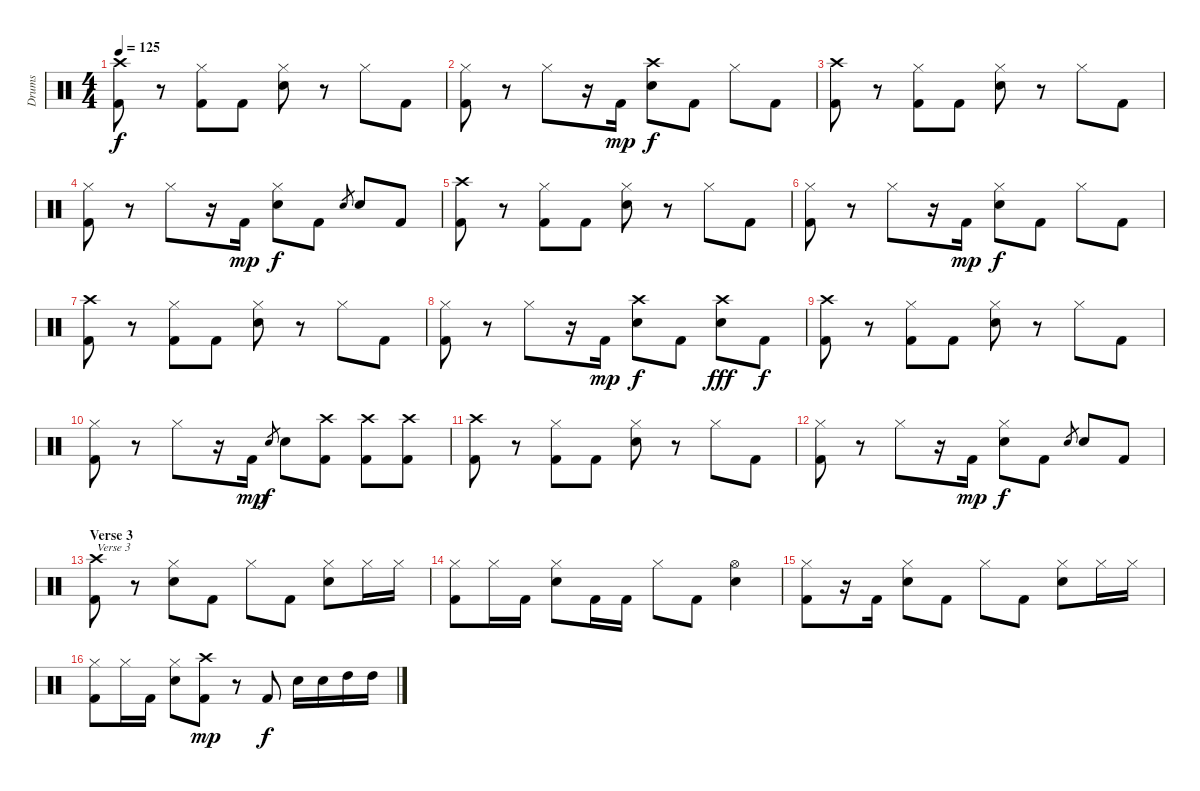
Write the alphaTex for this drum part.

\track ("Drums" "Drums") {instrument percussion}
\staff {score}
\articulation defaults
\ts (4 4)
\tempo 125
\clef neutral
\ks c
("Crash high (hit)" "Kick (hit) 2").8{dy f} r.8 ("Hi-Hat (closed)" "Kick (hit) 2").8 "Kick (hit) 2".8 ("Hi-Hat (closed)" "Electric Snare (hit)").8 r.8 "Hi-Hat (closed)".8 "Kick (hit) 2".8 |
("Hi-Hat (closed)" "Kick (hit) 2").8 r.8 "Hi-Hat (closed)".8 r.16 "Kick (hit) 2".16{dy mp} ("Crash high (hit)" "Electric Snare (hit)").8{dy f} "Kick (hit) 2".8 "Hi-Hat (closed)".8 "Kick (hit) 2".8 |
("Crash high (hit)" "Kick (hit) 2").8 r.8 ("Hi-Hat (closed)" "Kick (hit) 2").8 "Kick (hit) 2".8 ("Hi-Hat (closed)" "Electric Snare (hit)").8 r.8 "Hi-Hat (closed)".8 "Kick (hit) 2".8 |
("Hi-Hat (closed)" "Kick (hit) 2").8 r.8 "Hi-Hat (closed)".8 r.16 "Kick (hit) 2".16{dy mp} ("Hi-Hat (closed)" "Electric Snare (hit)").8{dy f} "Kick (hit) 2".8 "Electric Snare (hit)".8{gr} "Electric Snare (hit)".8 "Kick (hit) 2".8 |
("Crash high (hit)" "Kick (hit) 2").8 r.8 ("Hi-Hat (closed)" "Kick (hit) 2").8 "Kick (hit) 2".8 ("Hi-Hat (closed)" "Electric Snare (hit)").8 r.8 "Hi-Hat (closed)".8 "Kick (hit) 2".8 |
("Hi-Hat (closed)" "Kick (hit) 2").8 r.8 "Hi-Hat (closed)".8 r.16 "Kick (hit) 2".16{dy mp} ("Hi-Hat (closed)" "Electric Snare (hit)").8{dy f} "Kick (hit) 2".8 "Hi-Hat (closed)".8 "Kick (hit) 2".8 |
("Crash high (hit)" "Kick (hit) 2").8 r.8 ("Hi-Hat (closed)" "Kick (hit) 2").8 "Kick (hit) 2".8 ("Hi-Hat (closed)" "Electric Snare (hit)").8 r.8 "Hi-Hat (closed)".8 "Kick (hit) 2".8 |
("Hi-Hat (closed)" "Kick (hit) 2").8 r.8 "Hi-Hat (closed)".8 r.16 "Kick (hit) 2".16{dy mp} ("Crash high (hit)" "Electric Snare (hit)").8{dy f} "Kick (hit) 2".8 ("Crash high (hit)" "Electric Snare (hit)").8{dy fff} "Kick (hit) 2".8{dy f} |
("Crash high (hit)" "Kick (hit) 2").8 r.8 ("Hi-Hat (closed)" "Kick (hit) 2").8 "Kick (hit) 2".8 ("Hi-Hat (closed)" "Electric Snare (hit)").8 r.8 "Hi-Hat (closed)".8 "Kick (hit) 2".8 |
("Hi-Hat (closed)" "Kick (hit) 2").8 r.8 "Hi-Hat (closed)".8 r.16 "Kick (hit) 2".16{dy mp} "Electric Snare (hit)".8{gr dy f} "Electric Snare (hit)".8 ("Crash high (hit)" "Kick (hit) 2").8 ("Crash high (hit)" "Kick (hit) 2").8 ("Crash high (hit)" "Kick (hit) 2").8 |
("Crash high (hit)" "Kick (hit) 2").8 r.8 ("Hi-Hat (closed)" "Kick (hit) 2").8 "Kick (hit) 2".8 ("Hi-Hat (closed)" "Electric Snare (hit)").8 r.8 "Hi-Hat (closed)".8 "Kick (hit) 2".8 |
("Hi-Hat (closed)" "Kick (hit) 2").8 r.8 "Hi-Hat (closed)".8 r.16 "Kick (hit) 2".16{dy mp} ("Hi-Hat (closed)" "Electric Snare (hit)").8{dy f} "Kick (hit) 2".8 "Electric Snare (hit)".8{gr} "Electric Snare (hit)".8 "Kick (hit) 2".8 |
\section ("" "Verse 3")
("Crash high (hit)" "Kick (hit) 2").8{txt "Verse 3"} r.8 ("Hi-Hat (closed)" "Electric Snare (hit)").8 "Kick (hit) 2".8 "Hi-Hat (closed)".8 "Kick (hit) 2".8 ("Hi-Hat (closed)" "Electric Snare (hit)").8 "Hi-Hat (closed)".16 "Hi-Hat (closed)".16 |
("Hi-Hat (closed)" "Kick (hit) 2").8 "Hi-Hat (closed)".16 "Kick (hit) 2".16 ("Hi-Hat (closed)" "Electric Snare (hit)").8 "Kick (hit) 2".16 "Kick (hit) 2".16 "Hi-Hat (closed)".8 "Kick (hit) 2".8 ("Hi-Hat (open)" "Electric Snare (hit)").4 |
("Hi-Hat (closed)" "Kick (hit) 2").8 r.16 "Kick (hit) 2".16 ("Hi-Hat (closed)" "Electric Snare (hit)").8 "Kick (hit) 2".8 "Hi-Hat (closed)".8 "Kick (hit) 2".8 ("Hi-Hat (closed)" "Electric Snare (hit)").8 "Hi-Hat (closed)".16 "Hi-Hat (closed)".16 |
("Hi-Hat (closed)" "Kick (hit) 2").8 "Hi-Hat (closed)".16 "Kick (hit) 2".16 ("Hi-Hat (closed)" "Electric Snare (hit)").8 ("Crash high (hit)" "Kick (hit) 2").8{dy mp} r.8 "Kick (hit) 2".8{dy f} "Electric Snare (hit)".16 "Electric Snare (hit)".16 "High Tom (hit)".16 "High Tom (hit)".16
